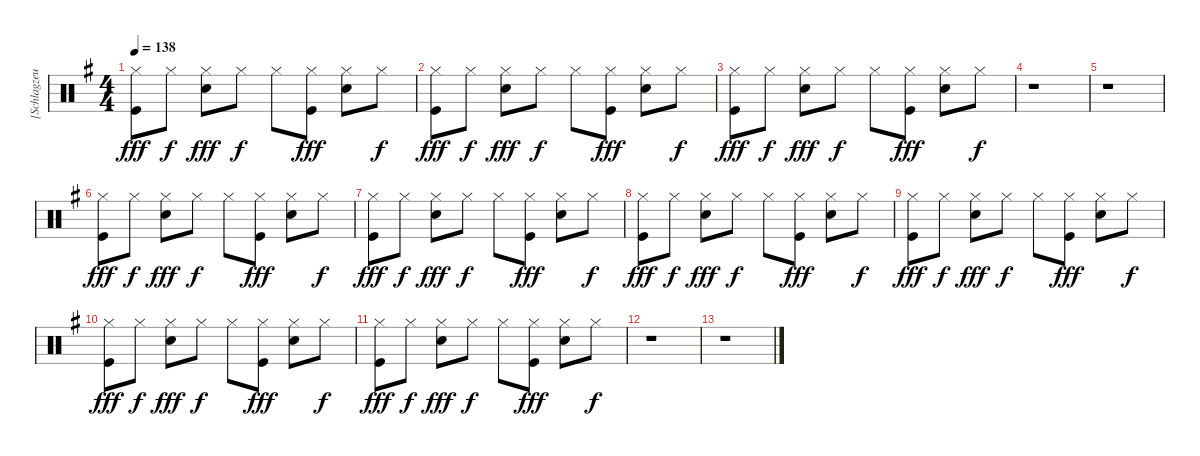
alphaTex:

\track ("[Schlagzeug]" "[Schlagzeu") {instrument percussion}
\staff {score}
\articulation defaults
\ts (4 4)
\tempo 138
\clef neutral
\ks eminor
("Hi-Hat (closed)" "Kick (hit)").8{dy fff} "Hi-Hat (closed)".8{dy f} ("Hi-Hat (closed)" "Electric Snare (hit)").8{dy fff} "Hi-Hat (closed)".8{dy f} "Hi-Hat (closed)".8 ("Hi-Hat (closed)" "Kick (hit)").8{dy fff} ("Hi-Hat (closed)" "Electric Snare (hit)").8 "Hi-Hat (closed)".8{dy f} |
("Hi-Hat (closed)" "Kick (hit)").8{dy fff} "Hi-Hat (closed)".8{dy f} ("Hi-Hat (closed)" "Electric Snare (hit)").8{dy fff} "Hi-Hat (closed)".8{dy f} "Hi-Hat (closed)".8 ("Hi-Hat (closed)" "Kick (hit)").8{dy fff} ("Hi-Hat (closed)" "Electric Snare (hit)").8 "Hi-Hat (closed)".8{dy f} |
("Hi-Hat (closed)" "Kick (hit)").8{dy fff} "Hi-Hat (closed)".8{dy f} ("Hi-Hat (closed)" "Electric Snare (hit)").8{dy fff} "Hi-Hat (closed)".8{dy f} "Hi-Hat (closed)".8 ("Hi-Hat (closed)" "Kick (hit)").8{dy fff} ("Hi-Hat (closed)" "Electric Snare (hit)").8 "Hi-Hat (closed)".8{dy f} |
r.1 |
r.1 |
("Hi-Hat (closed)" "Kick (hit)").8{dy fff} "Hi-Hat (closed)".8{dy f} ("Hi-Hat (closed)" "Electric Snare (hit)").8{dy fff} "Hi-Hat (closed)".8{dy f} "Hi-Hat (closed)".8 ("Hi-Hat (closed)" "Kick (hit)").8{dy fff} ("Hi-Hat (closed)" "Electric Snare (hit)").8 "Hi-Hat (closed)".8{dy f} |
("Hi-Hat (closed)" "Kick (hit)").8{dy fff} "Hi-Hat (closed)".8{dy f} ("Hi-Hat (closed)" "Electric Snare (hit)").8{dy fff} "Hi-Hat (closed)".8{dy f} "Hi-Hat (closed)".8 ("Hi-Hat (closed)" "Kick (hit)").8{dy fff} ("Hi-Hat (closed)" "Electric Snare (hit)").8 "Hi-Hat (closed)".8{dy f} |
("Hi-Hat (closed)" "Kick (hit)").8{dy fff} "Hi-Hat (closed)".8{dy f} ("Hi-Hat (closed)" "Electric Snare (hit)").8{dy fff} "Hi-Hat (closed)".8{dy f} "Hi-Hat (closed)".8 ("Hi-Hat (closed)" "Kick (hit)").8{dy fff} ("Hi-Hat (closed)" "Electric Snare (hit)").8 "Hi-Hat (closed)".8{dy f} |
("Hi-Hat (closed)" "Kick (hit)").8{dy fff} "Hi-Hat (closed)".8{dy f} ("Hi-Hat (closed)" "Electric Snare (hit)").8{dy fff} "Hi-Hat (closed)".8{dy f} "Hi-Hat (closed)".8 ("Hi-Hat (closed)" "Kick (hit)").8{dy fff} ("Hi-Hat (closed)" "Electric Snare (hit)").8 "Hi-Hat (closed)".8{dy f} |
("Hi-Hat (closed)" "Kick (hit)").8{dy fff} "Hi-Hat (closed)".8{dy f} ("Hi-Hat (closed)" "Electric Snare (hit)").8{dy fff} "Hi-Hat (closed)".8{dy f} "Hi-Hat (closed)".8 ("Hi-Hat (closed)" "Kick (hit)").8{dy fff} ("Hi-Hat (closed)" "Electric Snare (hit)").8 "Hi-Hat (closed)".8{dy f} |
("Hi-Hat (closed)" "Kick (hit)").8{dy fff} "Hi-Hat (closed)".8{dy f} ("Hi-Hat (closed)" "Electric Snare (hit)").8{dy fff} "Hi-Hat (closed)".8{dy f} "Hi-Hat (closed)".8 ("Hi-Hat (closed)" "Kick (hit)").8{dy fff} ("Hi-Hat (closed)" "Electric Snare (hit)").8 "Hi-Hat (closed)".8{dy f} |
r.1 |
r.1
